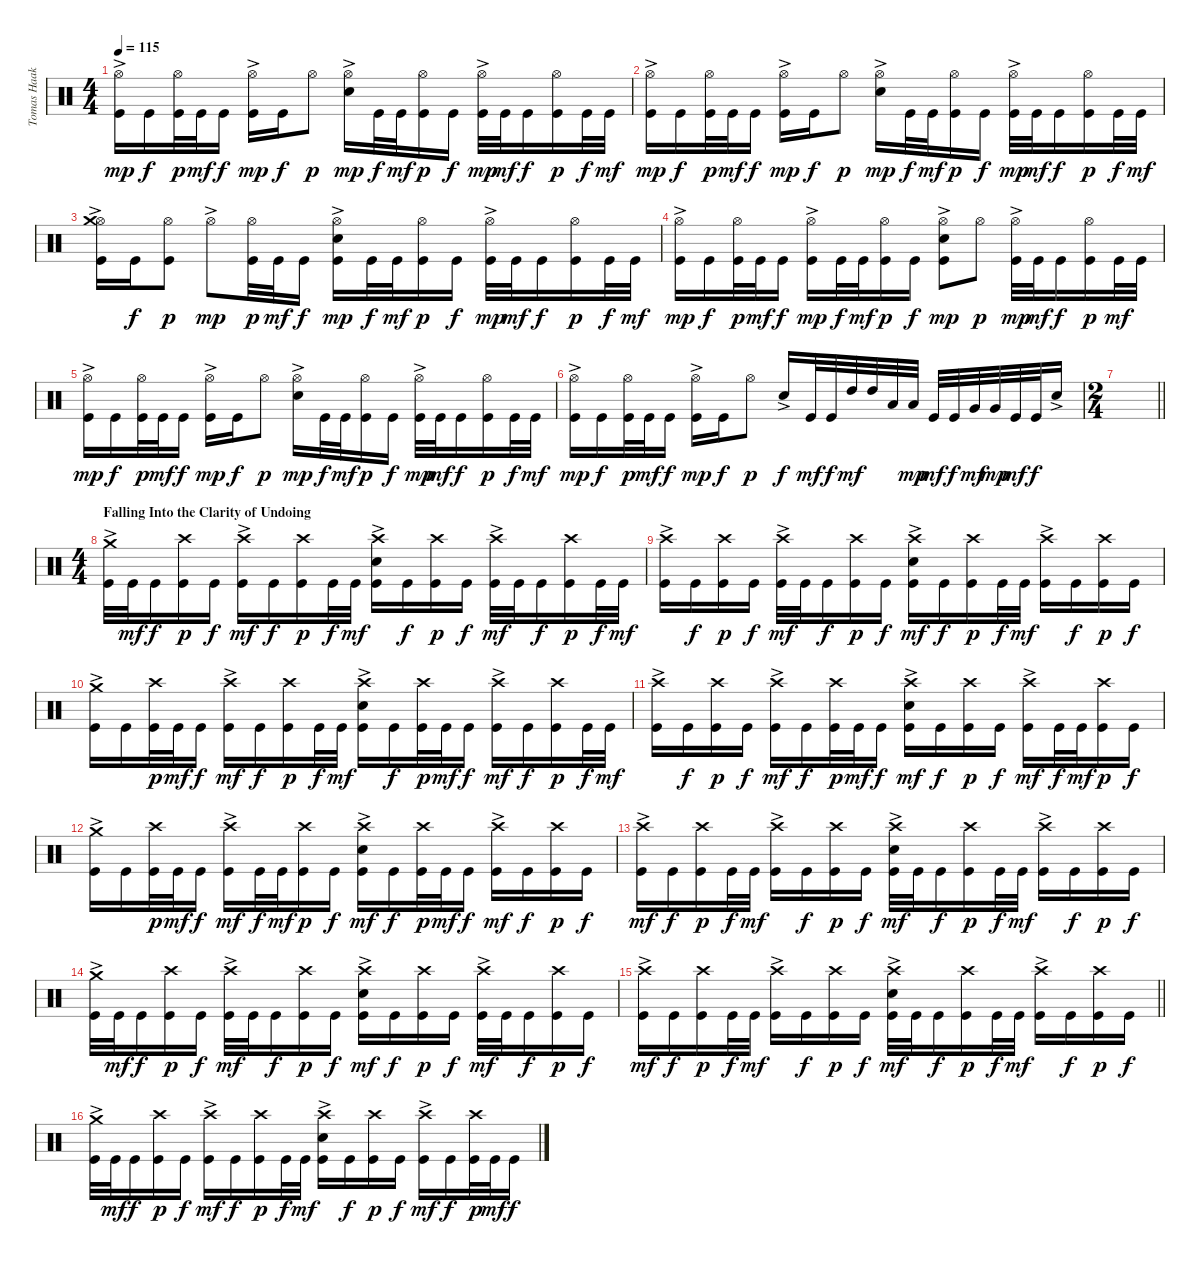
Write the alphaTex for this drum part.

\track ("Tomas Haake (Drums)" "Tomas Haak") {instrument percussion}
\staff {score}
\articulation defaults
\ts (4 4)
\tempo 115
\clef neutral
\ks c
("Hi-Hat (open)"{ac} "Kick (hit)").16{dy mp} "Kick (hit)".16{dy f} ("Hi-Hat (open)" "Kick (hit)").32{dy p} "Kick (hit)".32{dy mf} "Kick (hit)".16{dy f} ("Hi-Hat (open)"{ac} "Kick (hit)").16{dy mp} "Kick (hit)".16{dy f} "Hi-Hat (open)".8{dy p} ("Hi-Hat (open)"{ac} "Electric Snare (hit)").16{dy mp} "Kick (hit)".32{dy f} "Kick (hit)".32{dy mf} ("Hi-Hat (open)" "Kick (hit)").16{dy p} "Kick (hit)".16{dy f} ("Hi-Hat (open)"{ac} "Kick (hit)").32{dy mp} "Kick (hit)".32{dy mf} "Kick (hit)".16{dy f} ("Hi-Hat (open)" "Kick (hit)").16{dy p} "Kick (hit)".32{dy f} "Kick (hit)".32{dy mf} |
("Hi-Hat (open)"{ac} "Kick (hit)").16{dy mp} "Kick (hit)".16{dy f} ("Hi-Hat (open)" "Kick (hit)").32{dy p} "Kick (hit)".32{dy mf} "Kick (hit)".16{dy f} ("Hi-Hat (open)"{ac} "Kick (hit)").16{dy mp} "Kick (hit)".16{dy f} "Hi-Hat (open)".8{dy p} ("Hi-Hat (open)"{ac} "Electric Snare (hit)").16{dy mp} "Kick (hit)".32{dy f} "Kick (hit)".32{dy mf} ("Hi-Hat (open)" "Kick (hit)").16{dy p} "Kick (hit)".16{dy f} ("Hi-Hat (open)"{ac} "Kick (hit)").32{dy mp} "Kick (hit)".32{dy mf} "Kick (hit)".16{dy f} ("Hi-Hat (open)" "Kick (hit)").16{dy p} "Kick (hit)".32{dy f} "Kick (hit)".32{dy mf} |
("Hi-Hat (open)"{ac} "Crash medium (hit)" "Kick (hit)").16 "Kick (hit)".16{dy f} ("Hi-Hat (open)" "Kick (hit)").8{dy p} "Hi-Hat (open)"{ac}.8{dy mp} ("Hi-Hat (open)" "Kick (hit)").32{dy p} "Kick (hit)".32{dy mf} "Kick (hit)".16{dy f} ("Hi-Hat (open)"{ac} "Electric Snare (hit)" "Kick (hit)").16{dy mp} "Kick (hit)".32{dy f} "Kick (hit)".32{dy mf} ("Hi-Hat (open)" "Kick (hit)").16{dy p} "Kick (hit)".16{dy f} ("Hi-Hat (open)"{ac} "Kick (hit)").32{dy mp} "Kick (hit)".32{dy mf} "Kick (hit)".16{dy f} ("Hi-Hat (open)" "Kick (hit)").16{dy p} "Kick (hit)".32{dy f} "Kick (hit)".32{dy mf} |
("Hi-Hat (open)"{ac} "Kick (hit)").16{dy mp} "Kick (hit)".16{dy f} ("Hi-Hat (open)" "Kick (hit)").32{dy p} "Kick (hit)".32{dy mf} "Kick (hit)".16{dy f} ("Hi-Hat (open)"{ac} "Kick (hit)").16{dy mp} "Kick (hit)".32{dy f} "Kick (hit)".32{dy mf} ("Hi-Hat (open)" "Kick (hit)").16{dy p} "Kick (hit)".16{dy f} ("Hi-Hat (open)"{ac} "Electric Snare (hit)" "Kick (hit)").8{dy mp} "Hi-Hat (open)".8{dy p} ("Hi-Hat (open)"{ac} "Kick (hit)").32{dy mp} "Kick (hit)".32{dy mf} "Kick (hit)".16{dy f} ("Hi-Hat (open)" "Kick (hit)").16{dy p} "Kick (hit)".32{dy mf} "Kick (hit)".32 |
("Hi-Hat (open)"{ac} "Kick (hit)").16{dy mp} "Kick (hit)".16{dy f} ("Hi-Hat (open)" "Kick (hit)").32{dy p} "Kick (hit)".32{dy mf} "Kick (hit)".16{dy f} ("Hi-Hat (open)"{ac} "Kick (hit)").16{dy mp} "Kick (hit)".16{dy f} "Hi-Hat (open)".8{dy p} ("Hi-Hat (open)"{ac} "Electric Snare (hit)").16{dy mp} "Kick (hit)".32{dy f} "Kick (hit)".32{dy mf} ("Hi-Hat (open)" "Kick (hit)").16{dy p} "Kick (hit)".16{dy f} ("Hi-Hat (open)"{ac} "Kick (hit)").32{dy mp} "Kick (hit)".32{dy mf} "Kick (hit)".16{dy f} ("Hi-Hat (open)" "Kick (hit)").16{dy p} "Kick (hit)".32{dy f} "Kick (hit)".32{dy mf} |
("Hi-Hat (open)"{ac} "Kick (hit)").16{dy mp} "Kick (hit)".16{dy f} ("Hi-Hat (open)" "Kick (hit)").32{dy p} "Kick (hit)".32{dy mf} "Kick (hit)".16{dy f} ("Hi-Hat (open)"{ac} "Kick (hit)").16{dy mp} "Kick (hit)".16{dy f} "Hi-Hat (open)".8{dy p} "Electric Snare (hit)"{ac}.16{dy f} "Kick (hit)".32{dy mf} "Kick (hit)".32{dy f} "High Tom (hit)".32{dy mf} "High Tom (hit)".32 "Low Tom (hit)".32 "Low Tom (hit)".32{dy mp} "Kick (hit)".32{dy mf} "Kick (hit)".32{dy f} "Very Low Tom (hit)".32{dy mf} "Very Low Tom (hit)".32{dy mp} "Kick (hit)".32{dy mf} "Kick (hit)".32{dy f} "Electric Snare (hit)"{ac}.16 |
\ts (2 4)
\barLineRight lightlight
|
\ts (4 4)
\section ("" "Falling Into the Clarity of Undoing")
("Crash medium (hit)"{ac} "Kick (hit)").32 "Kick (hit)".32{dy mf} "Kick (hit)".16{dy f} ("Crash high (hit)" "Kick (hit)").16{dy p} "Kick (hit)".16{dy f} ("Crash high (hit)"{ac} "Kick (hit)").16{dy mf} "Kick (hit)".16{dy f} ("Crash high (hit)" "Kick (hit)").16{dy p} "Kick (hit)".32{dy f} "Kick (hit)".32{dy mf} ("Crash high (hit)"{ac} "Electric Snare (hit)" "Kick (hit)").16 "Kick (hit)".16{dy f} ("Crash high (hit)" "Kick (hit)").16{dy p} "Kick (hit)".16{dy f} ("Crash high (hit)"{ac} "Kick (hit)").32{dy mf} "Kick (hit)".32 "Kick (hit)".16{dy f} ("Crash high (hit)" "Kick (hit)").16{dy p} "Kick (hit)".32{dy f} "Kick (hit)".32{dy mf} |
("Crash high (hit)"{ac} "Kick (hit)").16 "Kick (hit)".16{dy f} ("Crash high (hit)" "Kick (hit)").16{dy p} "Kick (hit)".16{dy f} ("Crash high (hit)"{ac} "Kick (hit)").32{dy mf} "Kick (hit)".32 "Kick (hit)".16{dy f} ("Crash high (hit)" "Kick (hit)").16{dy p} "Kick (hit)".16{dy f} ("Crash high (hit)"{ac} "Electric Snare (hit)" "Kick (hit)").16{dy mf} "Kick (hit)".16{dy f} ("Crash high (hit)" "Kick (hit)").16{dy p} "Kick (hit)".32{dy f} "Kick (hit)".32{dy mf} ("Crash high (hit)"{ac} "Kick (hit)").16 "Kick (hit)".16{dy f} ("Crash high (hit)" "Kick (hit)").16{dy p} "Kick (hit)".16{dy f} |
("Crash medium (hit)"{ac} "Kick (hit)").16 "Kick (hit)".16 ("Crash high (hit)" "Kick (hit)").32{dy p} "Kick (hit)".32{dy mf} "Kick (hit)".16{dy f} ("Crash high (hit)"{ac} "Kick (hit)").16{dy mf} "Kick (hit)".16{dy f} ("Crash high (hit)" "Kick (hit)").16{dy p} "Kick (hit)".32{dy f} "Kick (hit)".32{dy mf} ("Crash high (hit)"{ac} "Electric Snare (hit)" "Kick (hit)").16 "Kick (hit)".16{dy f} ("Crash high (hit)" "Kick (hit)").32{dy p} "Kick (hit)".32{dy mf} "Kick (hit)".16{dy f} ("Crash high (hit)"{ac} "Kick (hit)").16{dy mf} "Kick (hit)".16{dy f} ("Crash high (hit)" "Kick (hit)").16{dy p} "Kick (hit)".32{dy f} "Kick (hit)".32{dy mf} |
("Crash high (hit)"{ac} "Kick (hit)").16 "Kick (hit)".16{dy f} ("Crash high (hit)" "Kick (hit)").16{dy p} "Kick (hit)".16{dy f} ("Crash high (hit)"{ac} "Kick (hit)").16{dy mf} "Kick (hit)".16{dy f} ("Crash high (hit)" "Kick (hit)").32{dy p} "Kick (hit)".32{dy mf} "Kick (hit)".16{dy f} ("Crash high (hit)"{ac} "Electric Snare (hit)" "Kick (hit)").16{dy mf} "Kick (hit)".16{dy f} ("Crash high (hit)" "Kick (hit)").16{dy p} "Kick (hit)".16{dy f} ("Crash high (hit)"{ac} "Kick (hit)").16{dy mf} "Kick (hit)".32{dy f} "Kick (hit)".32{dy mf} ("Crash high (hit)" "Kick (hit)").16{dy p} "Kick (hit)".16{dy f} |
("Crash medium (hit)"{ac} "Kick (hit)").16 "Kick (hit)".16 ("Crash high (hit)" "Kick (hit)").32{dy p} "Kick (hit)".32{dy mf} "Kick (hit)".16{dy f} ("Crash high (hit)"{ac} "Kick (hit)").16{dy mf} "Kick (hit)".32{dy f} "Kick (hit)".32{dy mf} ("Crash high (hit)" "Kick (hit)").16{dy p} "Kick (hit)".16{dy f} ("Crash high (hit)"{ac} "Electric Snare (hit)" "Kick (hit)").16{dy mf} "Kick (hit)".16{dy f} ("Crash high (hit)" "Kick (hit)").32{dy p} "Kick (hit)".32{dy mf} "Kick (hit)".16{dy f} ("Crash high (hit)"{ac} "Kick (hit)").16{dy mf} "Kick (hit)".16{dy f} ("Crash high (hit)" "Kick (hit)").16{dy p} "Kick (hit)".16{dy f} |
("Crash high (hit)"{ac} "Kick (hit)").16{dy mf} "Kick (hit)".16{dy f} ("Crash high (hit)" "Kick (hit)").16{dy p} "Kick (hit)".32{dy f} "Kick (hit)".32{dy mf} ("Crash high (hit)"{ac} "Kick (hit)").16 "Kick (hit)".16{dy f} ("Crash high (hit)" "Kick (hit)").16{dy p} "Kick (hit)".16{dy f} ("Crash high (hit)"{ac} "Electric Snare (hit)" "Kick (hit)").32{dy mf} "Kick (hit)".32 "Kick (hit)".16{dy f} ("Crash high (hit)" "Kick (hit)").16{dy p} "Kick (hit)".32{dy f} "Kick (hit)".32{dy mf} ("Crash high (hit)"{ac} "Kick (hit)").16 "Kick (hit)".16{dy f} ("Crash high (hit)" "Kick (hit)").16{dy p} "Kick (hit)".16{dy f} |
("Crash medium (hit)"{ac} "Kick (hit)").32 "Kick (hit)".32{dy mf} "Kick (hit)".16{dy f} ("Crash high (hit)" "Kick (hit)").16{dy p} "Kick (hit)".16{dy f} ("Crash high (hit)"{ac} "Kick (hit)").32{dy mf} "Kick (hit)".32 "Kick (hit)".16{dy f} ("Crash high (hit)" "Kick (hit)").16{dy p} "Kick (hit)".16{dy f} ("Crash high (hit)"{ac} "Electric Snare (hit)" "Kick (hit)").16{dy mf} "Kick (hit)".16{dy f} ("Crash high (hit)" "Kick (hit)").16{dy p} "Kick (hit)".16{dy f} ("Crash high (hit)"{ac} "Kick (hit)").32{dy mf} "Kick (hit)".32 "Kick (hit)".16{dy f} ("Crash high (hit)" "Kick (hit)").16{dy p} "Kick (hit)".16{dy f} |
\barLineRight lightlight
("Crash high (hit)"{ac} "Kick (hit)").16{dy mf} "Kick (hit)".16{dy f} ("Crash high (hit)" "Kick (hit)").16{dy p} "Kick (hit)".32{dy f} "Kick (hit)".32{dy mf} ("Crash high (hit)"{ac} "Kick (hit)").16 "Kick (hit)".16{dy f} ("Crash high (hit)" "Kick (hit)").16{dy p} "Kick (hit)".16{dy f} ("Crash high (hit)"{ac} "Electric Snare (hit)" "Kick (hit)").32{dy mf} "Kick (hit)".32 "Kick (hit)".16{dy f} ("Crash high (hit)" "Kick (hit)").16{dy p} "Kick (hit)".32{dy f} "Kick (hit)".32{dy mf} ("Crash high (hit)"{ac} "Kick (hit)").16 "Kick (hit)".16{dy f} ("Crash high (hit)" "Kick (hit)").16{dy p} "Kick (hit)".16{dy f} |
("Crash medium (hit)"{ac} "Kick (hit)").32 "Kick (hit)".32{dy mf} "Kick (hit)".16{dy f} ("Crash high (hit)" "Kick (hit)").16{dy p} "Kick (hit)".16{dy f} ("Crash high (hit)"{ac} "Kick (hit)").16{dy mf} "Kick (hit)".16{dy f} ("Crash high (hit)" "Kick (hit)").16{dy p} "Kick (hit)".32{dy f} "Kick (hit)".32{dy mf} ("Crash high (hit)"{ac} "Electric Snare (hit)" "Kick (hit)").16 "Kick (hit)".16{dy f} ("Crash high (hit)" "Kick (hit)").16{dy p} "Kick (hit)".16{dy f} ("Crash high (hit)"{ac} "Kick (hit)").16{dy mf} "Kick (hit)".16{dy f} ("Crash high (hit)" "Kick (hit)").32{dy p} "Kick (hit)".32{dy mf} "Kick (hit)".16{dy f}
